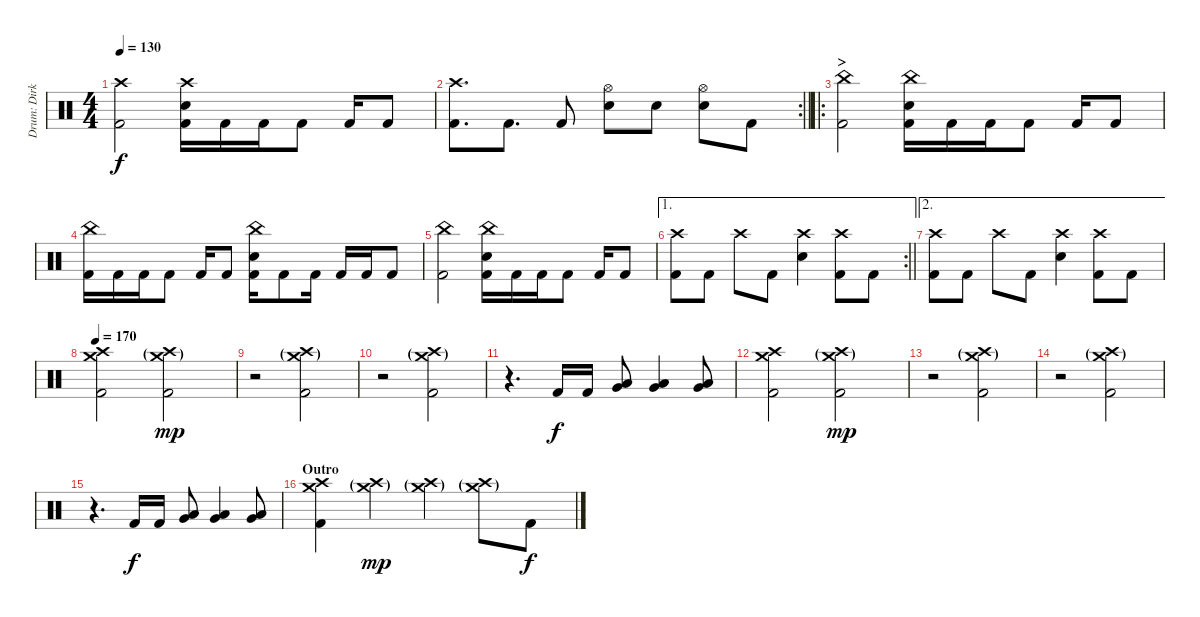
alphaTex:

\track ("Drum: Dirk" "Drum: Dirk") {instrument percussion}
\staff {score}
\articulation defaults
\ts (4 4)
\tempo 130
\clef neutral
\ks c
("Crash high (hit)" "Kick (hit) 2").2{dy f} ("Crash high (hit)" "Electric Snare (hit)" "Kick (hit) 2").16 "Kick (hit) 2".16 "Kick (hit) 2".16 "Kick (hit) 2".8 "Kick (hit) 2".16 "Kick (hit) 2".8 |
\rc 2
\barLineRight lightlight
("Crash high (hit)" "Kick (hit) 2").8{d} "Kick (hit) 2".8{d} "Kick (hit) 2".8 ("Hi-Hat (open)" "Electric Snare (hit)").8 "Electric Snare (hit)".8 ("Hi-Hat (open)" "Electric Snare (hit)").8 "Kick (hit) 2".8 |
\ro
\section ("" ">")
("China (hit)" "Kick (hit) 2").2 ("China (hit)" "Electric Snare (hit)" "Kick (hit) 2").16 "Kick (hit) 2".16 "Kick (hit) 2".16 "Kick (hit) 2".8 "Kick (hit) 2".16 "Kick (hit) 2".8 |
("China (hit)" "Kick (hit) 2").16 "Kick (hit) 2".16 "Kick (hit) 2".16 "Kick (hit) 2".8 "Kick (hit) 2".16 "Kick (hit) 2".8 ("China (hit)" "Electric Snare (hit)" "Kick (hit) 2").16 "Kick (hit) 2".8 "Kick (hit) 2".16 "Kick (hit) 2".16 "Kick (hit) 2".16 "Kick (hit) 2".8 |
("China (hit)" "Kick (hit) 2").2 ("China (hit)" "Electric Snare (hit)" "Kick (hit) 2").16 "Kick (hit) 2".16 "Kick (hit) 2".16 "Kick (hit) 2".8 "Kick (hit) 2".16 "Kick (hit) 2".8 |
\ae 1
\rc 2
\barLineRight lightlight
("Crash high (hit)" "Kick (hit) 2").8 "Kick (hit) 2".8 "Crash high (hit)".8 "Kick (hit) 2".8 ("Crash high (hit)" "Electric Snare (hit)").4 ("Crash high (hit)" "Kick (hit) 2").8 "Kick (hit) 2".8 |
\ae 2
("Crash high (hit)" "Kick (hit) 2").8 "Kick (hit) 2".8 "Crash high (hit)".8 "Kick (hit) 2".8 ("Crash high (hit)" "Electric Snare (hit)").4 ("Crash high (hit)" "Kick (hit) 2").8 "Kick (hit) 2".8 |
\tempo 170
("Crash high (hit)" "Crash medium (hit)" "Kick (hit) 2").2 ("Crash high (hit)"{g} "Crash medium (hit)"{g} "Kick (hit) 2").2{dy mp} |
r.2 ("Crash high (hit)"{g} "Crash medium (hit)"{g} "Kick (hit) 2").2 |
r.2 ("Crash high (hit)"{g} "Crash medium (hit)"{g} "Kick (hit) 2").2 |
r.4{d} "Kick (hit) 2".16{dy f} "Kick (hit) 2".16 ("Low Tom (hit)" "Very Low Tom (hit)").8 ("Low Tom (hit)" "Very Low Tom (hit)").4 ("Low Tom (hit)" "Very Low Tom (hit)").8 |
("Crash high (hit)" "Crash medium (hit)" "Kick (hit) 2").2 ("Crash high (hit)"{g} "Crash medium (hit)"{g} "Kick (hit) 2").2{dy mp} |
r.2 ("Crash high (hit)"{g} "Crash medium (hit)"{g} "Kick (hit) 2").2 |
r.2 ("Crash high (hit)"{g} "Crash medium (hit)"{g} "Kick (hit) 2").2 |
r.4{d} "Kick (hit) 2".16{dy f} "Kick (hit) 2".16 ("Low Tom (hit)" "Very Low Tom (hit)").8 ("Low Tom (hit)" "Very Low Tom (hit)").4 ("Low Tom (hit)" "Very Low Tom (hit)").8 |
\section ("" "Outro")
("Crash high (hit)" "Crash medium (hit)" "Kick (hit) 2").4 ("Crash high (hit)"{g} "Crash medium (hit)"{g}).4{dy mp} ("Crash high (hit)"{g} "Crash medium (hit)"{g}).4 ("Crash high (hit)"{g} "Crash medium (hit)"{g}).8 "Kick (hit) 2".8{dy f}
